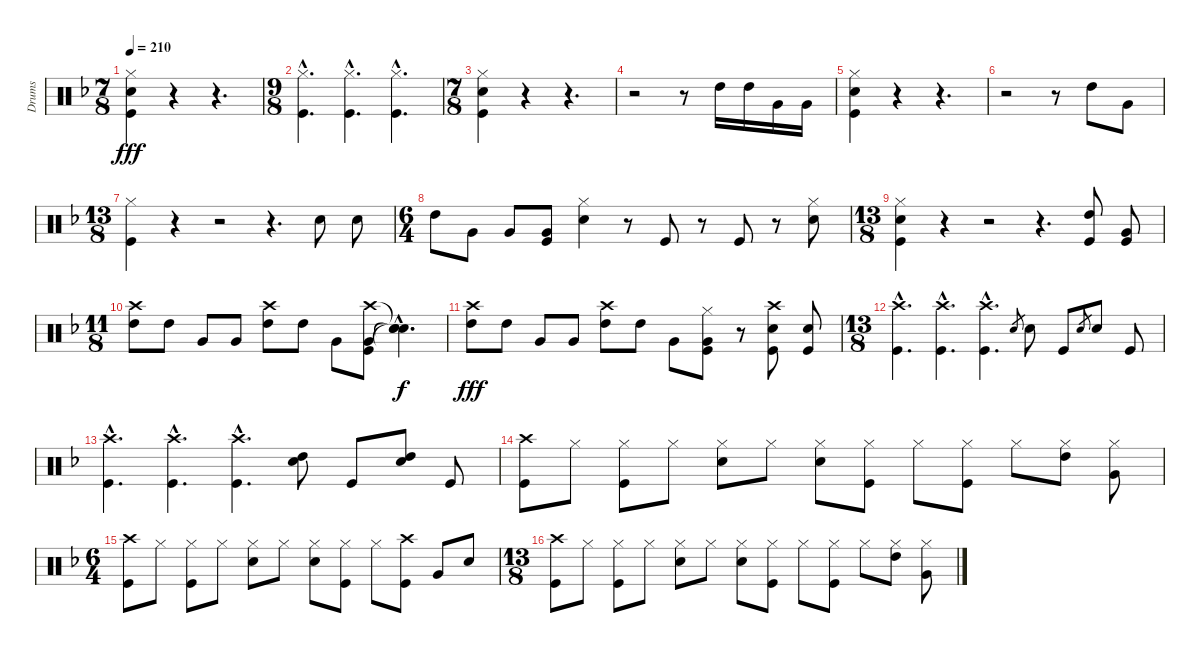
\track ("Drums" "Drums") {instrument percussion}
\staff {score}
\articulation defaults
\ts (7 8)
\tempo 210
\clef neutral
\ks f
("Hi-Hat (closed)" "Snare (hit) 2" "Kick (hit)").4{dy fff} r.4 r.4{d} |
\ts (9 8)
("Hi-Hat (closed)"{hac} "Kick (hit)"{hac}).4{d} ("Hi-Hat (closed)"{hac} "Kick (hit)"{hac}).4{d} ("Hi-Hat (closed)"{hac} "Kick (hit)"{hac}).4{d} |
\ts (7 8)
("Hi-Hat (closed)" "Snare (hit) 2" "Kick (hit)").4 r.4 r.4{d} |
r.2 r.8 "High Tom (hit)".16 "High Tom (hit)".16 "Very Low Tom (hit)".16 "Very Low Tom (hit)".16 |
("Hi-Hat (closed)" "Snare (hit) 2" "Kick (hit)").4 r.4 r.4{d} |
r.2 r.8 "High Tom (hit)".8 "Very Low Tom (hit)".8 |
\ts (13 8)
("Hi-Hat (closed)" "Kick (hit)").4 r.4 r.2 r.4{d} "Snare (hit) 2".8 "Snare (hit) 2".8 |
\ts (6 4)
"High Tom (hit)".8 "Very Low Tom (hit)".8 "Very Low Tom (hit)".8 ("Very Low Tom (hit)" "Kick (hit)").8 ("Hi-Hat (closed)" "Snare (hit) 2").4 r.8 "Kick (hit)".8 r.8 "Kick (hit)".8 r.8 ("Hi-Hat (closed)" "Snare (hit) 2").8 |
\ts (13 8)
("Hi-Hat (closed)" "Snare (hit) 2" "Kick (hit)").4 r.4 r.2 r.4{d} ("High Tom (hit)" "Kick (hit)").8 ("Very Low Tom (hit)" "Kick (hit)").8 |
\ts (11 8)
("Crash high (hit)" "High Tom (hit)").8 "High Tom (hit)".8 "Very Low Tom (hit)".8 "Very Low Tom (hit)".8 ("Crash high (hit)" "High Tom (hit)").8 "High Tom (hit)".8 "Very Low Tom (hit)".8 ("Crash high (hit)" "Very Low Tom (hit)" "Kick (hit)").8 ("Snare (hit)"{hac t} "Snare (hit)"{hac t} "Snare (hit)"{hac t}).4{d dy f} |
("Crash high (hit)" "High Tom (hit)").8{dy fff} "High Tom (hit)".8 "Very Low Tom (hit)".8 "Very Low Tom (hit)".8 ("Crash high (hit)" "High Tom (hit)").8 "High Tom (hit)".8 "Very Low Tom (hit)".8 ("Hi-Hat (closed)" "Very Low Tom (hit)" "Kick (hit)").8 r.8 ("Crash high (hit)" "Snare (hit) 2" "Kick (hit)").8 ("Snare (hit) 2" "Kick (hit)").8 |
\ts (13 8)
("Crash high (hit)"{hac} "Kick (hit)"{hac}).4{d} ("Crash high (hit)"{hac} "Kick (hit)"{hac}).4{d} ("Crash high (hit)"{hac} "Kick (hit)"{hac}).4{d} "Snare (hit) 2".8{gr} "Snare (hit) 2".8 "Kick (hit)".8 "Snare (hit) 2".8{gr} "Snare (hit) 2".8 "Kick (hit)".8 |
("Crash high (hit)"{hac} "Kick (hit)"{hac}).4{d} ("Crash high (hit)"{hac} "Kick (hit)"{hac}).4{d} ("Crash high (hit)"{hac} "Kick (hit)"{hac}).4{d} ("High Tom (hit)" "Snare (hit) 2").8 "Kick (hit)".8 ("High Tom (hit)" "Snare (hit) 2").8 "Kick (hit)".8 |
("Crash high (hit)" "Kick (hit)").8 "Hi-Hat (closed)".8 ("Hi-Hat (closed)" "Kick (hit)").8 "Hi-Hat (closed)".8 ("Hi-Hat (closed)" "Snare (hit) 2").8 "Hi-Hat (closed)".8 ("Hi-Hat (closed)" "Snare (hit) 2").8 ("Hi-Hat (closed)" "Kick (hit)").8 "Hi-Hat (closed)".8 ("Hi-Hat (closed)" "Kick (hit)").8 "Hi-Hat (closed)".8 ("Hi-Hat (closed)" "High Tom (hit)").8 ("Hi-Hat (closed)" "Very Low Tom (hit)").8 |
\ts (6 4)
("Crash high (hit)" "Kick (hit)").8 "Hi-Hat (closed)".8 ("Hi-Hat (closed)" "Kick (hit)").8 "Hi-Hat (closed)".8 ("Hi-Hat (closed)" "Snare (hit) 2").8 "Hi-Hat (closed)".8 ("Hi-Hat (closed)" "Snare (hit) 2").8 ("Hi-Hat (closed)" "Kick (hit)").8 "Hi-Hat (closed)".8 ("Crash high (hit)" "Kick (hit)").8 "Very Low Tom (hit)".8 "Snare (hit) 2".8 |
\ts (13 8)
("Crash high (hit)" "Kick (hit)").8 "Hi-Hat (closed)".8 ("Hi-Hat (closed)" "Kick (hit)").8 "Hi-Hat (closed)".8 ("Hi-Hat (closed)" "Snare (hit) 2").8 "Hi-Hat (closed)".8 ("Hi-Hat (closed)" "Snare (hit) 2").8 ("Hi-Hat (closed)" "Kick (hit)").8 "Hi-Hat (closed)".8 ("Hi-Hat (closed)" "Kick (hit)").8 "Hi-Hat (closed)".8 ("Hi-Hat (closed)" "High Tom (hit)").8 ("Hi-Hat (closed)" "Very Low Tom (hit)").8
